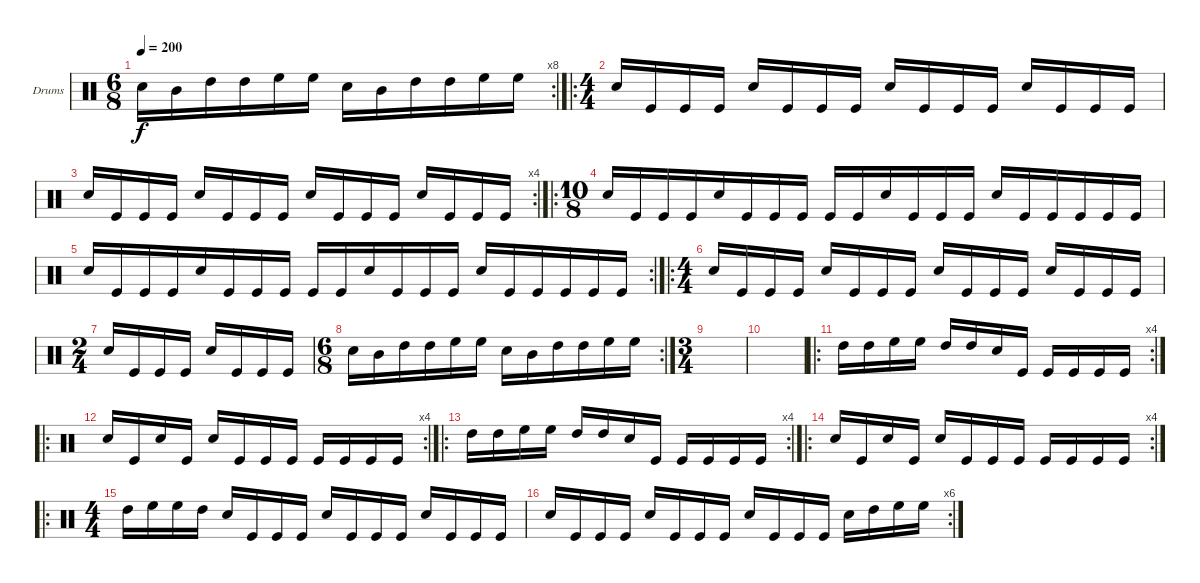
\defaultSystemsLayout 4
\bracketExtendMode groupsimilarinstruments
\firstSystemTrackNameOrientation horizontal
\otherSystemsTrackNameOrientation horizontal
\track ("Corpse Blaster" "Drums") {instrument percussion}
\staff {score}
\articulation defaults
\rc 8
\ts (6 8)
\tempo 200
\clef neutral
\ks c "Snare (hit) 2".16{dy f} "Mid Tom (hit)".16 "High Tom (hit)".16 "High Tom (hit)".16 "High Floor Tom (hit)".16 "High Floor Tom (hit)".16 "Snare (hit) 2".16 "Mid Tom (hit)".16 "High Tom (hit)".16 "High Tom (hit)".16 "High Floor Tom (hit)".16 "High Floor Tom (hit)".16
|
\ro
\ts (4 4)
"Snare (hit) 2".16 "Kick (hit)".16 "Kick (hit)".16 "Kick (hit)".16 "Snare (hit) 2".16 "Kick (hit)".16 "Kick (hit)".16 "Kick (hit)".16 "Snare (hit) 2".16 "Kick (hit)".16 "Kick (hit)".16 "Kick (hit)".16 "Snare (hit) 2".16 "Kick (hit)".16 "Kick (hit)".16 "Kick (hit)".16 |
\rc 4 "Snare (hit) 2".16 "Kick (hit)".16 "Kick (hit)".16 "Kick (hit)".16 "Snare (hit) 2".16 "Kick (hit)".16 "Kick (hit)".16 "Kick (hit)".16 "Snare (hit) 2".16 "Kick (hit)".16 "Kick (hit)".16 "Kick (hit)".16 "Snare (hit) 2".16 "Kick (hit)".16 "Kick (hit)".16 "Kick (hit)".16
|
\ro
\ts (10 8)
"Snare (hit) 2".16 "Kick (hit)".16 "Kick (hit)".16 "Kick (hit)".16 "Snare (hit) 2".16 "Kick (hit)".16 "Kick (hit)".16 "Kick (hit)".16 "Kick (hit)".16 "Kick (hit)".16 "Snare (hit) 2".16 "Kick (hit)".16 "Kick (hit)".16 "Kick (hit)".16 "Snare (hit) 2".16 "Kick (hit)".16 "Kick (hit)".16 "Kick (hit)".16 "Kick (hit)".16 "Kick (hit)".16 |
\rc 2 "Snare (hit) 2".16 "Kick (hit)".16 "Kick (hit)".16 "Kick (hit)".16 "Snare (hit) 2".16 "Kick (hit)".16 "Kick (hit)".16 "Kick (hit)".16 "Kick (hit)".16 "Kick (hit)".16 "Snare (hit) 2".16 "Kick (hit)".16 "Kick (hit)".16 "Kick (hit)".16 "Snare (hit) 2".16 "Kick (hit)".16 "Kick (hit)".16 "Kick (hit)".16 "Kick (hit)".16 "Kick (hit)".16
|
\ro
\ts (4 4)
"Snare (hit) 2".16 "Kick (hit)".16 "Kick (hit)".16 "Kick (hit)".16 "Snare (hit) 2".16 "Kick (hit)".16 "Kick (hit)".16 "Kick (hit)".16 "Snare (hit) 2".16 "Kick (hit)".16 "Kick (hit)".16 "Kick (hit)".16 "Snare (hit) 2".16 "Kick (hit)".16 "Kick (hit)".16 "Kick (hit)".16 |
\ts (2 4)
"Snare (hit) 2".16 "Kick (hit)".16 "Kick (hit)".16 "Kick (hit)".16 "Snare (hit) 2".16 "Kick (hit)".16 "Kick (hit)".16 "Kick (hit)".16 |
\rc 2
\ts (6 8)
"Snare (hit) 2".16 "Mid Tom (hit)".16 "High Tom (hit)".16 "High Tom (hit)".16 "High Floor Tom (hit)".16 "High Floor Tom (hit)".16 "Snare (hit) 2".16 "Mid Tom (hit)".16 "High Tom (hit)".16 "High Tom (hit)".16 "High Floor Tom (hit)".16 "High Floor Tom (hit)".16 |
\ts (3 4)
|
|
\ro
\rc 4 "High Tom (hit)".16 "High Tom (hit)".16 "High Floor Tom (hit)".16 "High Floor Tom (hit)".16 "High Tom (hit)".16 "High Tom (hit)".16 "Snare (hit) 2".16 "Kick (hit)".16 "Kick (hit)".16 "Kick (hit)".16 "Kick (hit)".16 "Kick (hit)".16
|
\ro
\rc 4 "Snare (hit) 2".16 "Kick (hit)".16 "Snare (hit) 2".16 "Kick (hit)".16 "Snare (hit) 2".16 "Kick (hit)".16 "Kick (hit)".16 "Kick (hit)".16 "Kick (hit)".16 "Kick (hit)".16 "Kick (hit)".16 "Kick (hit)".16
|
\ro
\rc 4 "High Tom (hit)".16 "High Tom (hit)".16 "High Floor Tom (hit)".16 "High Floor Tom (hit)".16 "High Tom (hit)".16 "High Tom (hit)".16 "Snare (hit) 2".16 "Kick (hit)".16 "Kick (hit)".16 "Kick (hit)".16 "Kick (hit)".16 "Kick (hit)".16
|
\ro
\rc 4 "Snare (hit) 2".16 "Kick (hit)".16 "Snare (hit) 2".16 "Kick (hit)".16 "Snare (hit) 2".16 "Kick (hit)".16 "Kick (hit)".16 "Kick (hit)".16 "Kick (hit)".16 "Kick (hit)".16 "Kick (hit)".16 "Kick (hit)".16
|
\ro
\ts (4 4)
"High Tom (hit)".16 "High Floor Tom (hit)".16 "High Floor Tom (hit)".16 "High Tom (hit)".16 "Snare (hit) 2".16 "Kick (hit)".16 "Kick (hit)".16 "Kick (hit)".16 "Snare (hit) 2".16 "Kick (hit)".16 "Kick (hit)".16 "Kick (hit)".16 "Snare (hit) 2".16 "Kick (hit)".16 "Kick (hit)".16 "Kick (hit)".16 |
\rc 6 "Snare (hit) 2".16 "Kick (hit)".16 "Kick (hit)".16 "Kick (hit)".16 "Snare (hit) 2".16 "Kick (hit)".16 "Kick (hit)".16 "Kick (hit)".16 "Snare (hit) 2".16 "Kick (hit)".16 "Kick (hit)".16 "Kick (hit)".16 "Snare (hit) 2".16 "High Tom (hit)".16 "High Floor Tom (hit)".16 "High Floor Tom (hit)".16
